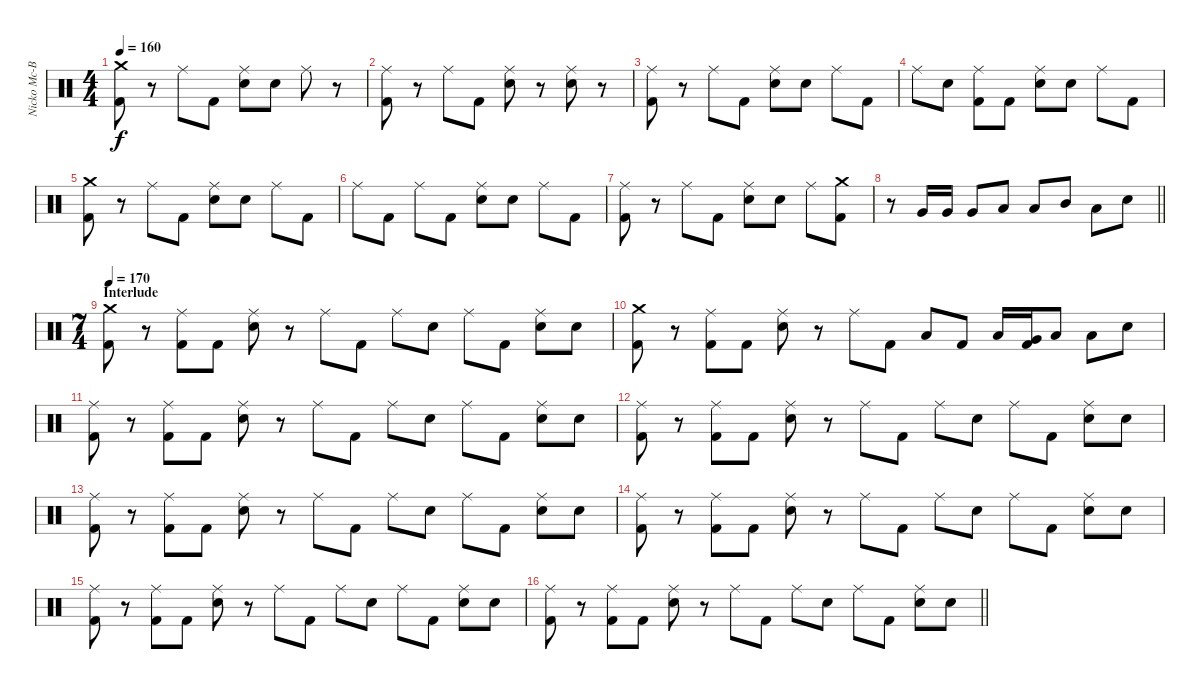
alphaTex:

\track ("Nicko Mc-Brain" "Nicko Mc-B") {instrument percussion}
\staff {score}
\articulation defaults
\ts (4 4)
\tempo 160
\clef neutral
\ks c
("Crash medium (hit)" "Kick (hit) 2").8{dy f} r.8 "Ride (middle)".8 "Kick (hit) 2".8 ("Ride (middle)" "Snare (hit) 2").8 "Snare (hit) 2".8 "Ride (middle)".8 r.8 |
("Ride (middle)" "Kick (hit) 2").8 r.8 "Ride (middle)".8 "Kick (hit) 2".8 ("Ride (middle)" "Snare (hit) 2").8 r.8 ("Ride (middle)" "Snare (hit) 2").8 r.8 |
("Ride (middle)" "Kick (hit) 2").8 r.8 "Ride (middle)".8 "Kick (hit) 2".8 ("Ride (middle)" "Snare (hit) 2").8 "Snare (hit) 2".8 "Ride (middle)".8 "Kick (hit) 2".8 |
"Ride (middle)".8 "Snare (hit) 2".8 ("Ride (middle)" "Kick (hit) 2").8 "Kick (hit) 2".8 ("Ride (middle)" "Snare (hit) 2").8 "Snare (hit) 2".8 "Ride (middle)".8 "Kick (hit) 2".8 |
("Crash medium (hit)" "Kick (hit) 2").8 r.8 "Ride (middle)".8 "Kick (hit) 2".8 ("Ride (middle)" "Snare (hit) 2").8 "Snare (hit) 2".8 "Ride (middle)".8 "Kick (hit) 2".8 |
"Ride (middle)".8 "Kick (hit) 2".8 "Ride (middle)".8 "Kick (hit) 2".8 ("Ride (middle)" "Snare (hit) 2").8 "Snare (hit) 2".8 "Ride (middle)".8 "Kick (hit) 2".8 |
("Ride (middle)" "Kick (hit) 2").8 r.8 "Ride (middle)".8 "Kick (hit) 2".8 ("Ride (middle)" "Snare (hit) 2").8 "Snare (hit) 2".8 "Ride (middle)".8 ("Crash medium (hit)" "Kick (hit) 2").8 |
\barLineRight lightlight
r.8 "Very Low Tom (hit)".16 "Very Low Tom (hit)".16 "Very Low Tom (hit)".8 "Low Tom (hit)".8 "Low Tom (hit)".8 "Mid Tom (hit)".8 "Low Tom (hit)".8 "Snare (hit) 2".8 |
\ts (7 4)
\section ("" "Interlude")
\tempo 170
("Crash medium (hit)" "Kick (hit) 2").8 r.8 ("Ride (middle)" "Kick (hit) 2").8 "Kick (hit) 2".8 ("Ride (middle)" "Snare (hit) 2").8 r.8 "Ride (middle)".8 "Kick (hit) 2".8 "Ride (middle)".8 "Snare (hit) 2".8 "Ride (middle)".8 "Kick (hit) 2".8 ("Ride (middle)" "Snare (hit) 2").8 "Snare (hit) 2".8 |
("Crash medium (hit)" "Kick (hit) 2").8 r.8 ("Ride (middle)" "Kick (hit) 2").8 "Kick (hit) 2".8 ("Ride (middle)" "Snare (hit) 2").8 r.8 "Ride (middle)".8 "Kick (hit) 2".8 "Low Tom (hit)".8 "Kick (hit) 2".8 "Low Tom (hit)".16 ("Very Low Tom (hit)" "Kick (hit) 2").16 "Low Floor Tom (hit)".8 "Low Floor Tom (hit)".8 "Snare (hit) 2".8 |
("Ride (middle)" "Kick (hit) 2").8 r.8 ("Ride (middle)" "Kick (hit) 2").8 "Kick (hit) 2".8 ("Ride (middle)" "Snare (hit) 2").8 r.8 "Ride (middle)".8 "Kick (hit) 2".8 "Ride (middle)".8 "Snare (hit) 2".8 "Ride (middle)".8 "Kick (hit) 2".8 ("Ride (middle)" "Snare (hit) 2").8 "Snare (hit) 2".8 |
("Ride (middle)" "Kick (hit) 2").8 r.8 ("Ride (middle)" "Kick (hit) 2").8 "Kick (hit) 2".8 ("Ride (middle)" "Snare (hit) 2").8 r.8 "Ride (middle)".8 "Kick (hit) 2".8 "Ride (middle)".8 "Snare (hit) 2".8 "Ride (middle)".8 "Kick (hit) 2".8 ("Ride (middle)" "Snare (hit) 2").8 "Snare (hit) 2".8 |
("Ride (middle)" "Kick (hit) 2").8 r.8 ("Ride (middle)" "Kick (hit) 2").8 "Kick (hit) 2".8 ("Ride (middle)" "Snare (hit) 2").8 r.8 "Ride (middle)".8 "Kick (hit) 2".8 "Ride (middle)".8 "Snare (hit) 2".8 "Ride (middle)".8 "Kick (hit) 2".8 ("Ride (middle)" "Snare (hit) 2").8 "Snare (hit) 2".8 |
("Ride (middle)" "Kick (hit) 2").8 r.8 ("Ride (middle)" "Kick (hit) 2").8 "Kick (hit) 2".8 ("Ride (middle)" "Snare (hit) 2").8 r.8 "Ride (middle)".8 "Kick (hit) 2".8 "Ride (middle)".8 "Snare (hit) 2".8 "Ride (middle)".8 "Kick (hit) 2".8 ("Ride (middle)" "Snare (hit) 2").8 "Snare (hit) 2".8 |
("Ride (middle)" "Kick (hit) 2").8 r.8 ("Ride (middle)" "Kick (hit) 2").8 "Kick (hit) 2".8 ("Ride (middle)" "Snare (hit) 2").8 r.8 "Ride (middle)".8 "Kick (hit) 2".8 "Ride (middle)".8 "Snare (hit) 2".8 "Ride (middle)".8 "Kick (hit) 2".8 ("Ride (middle)" "Snare (hit) 2").8 "Snare (hit) 2".8 |
\barLineRight lightlight
("Ride (middle)" "Kick (hit) 2").8 r.8 ("Ride (middle)" "Kick (hit) 2").8 "Kick (hit) 2".8 ("Ride (middle)" "Snare (hit) 2").8 r.8 "Ride (middle)".8 "Kick (hit) 2".8 "Ride (middle)".8 "Snare (hit) 2".8 "Ride (middle)".8 "Kick (hit) 2".8 ("Ride (middle)" "Snare (hit) 2").8 "Snare (hit) 2".8
